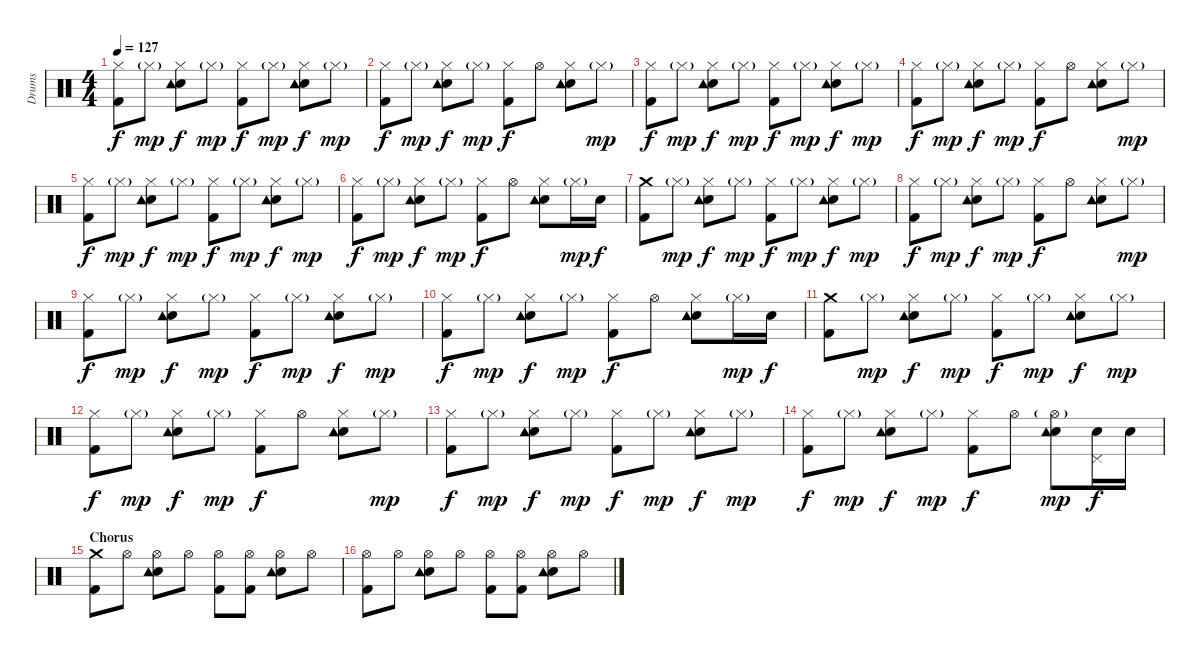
\track ("Drums" "Drums") {instrument percussion}
\staff {score}
\articulation defaults
\ts (4 4)
\tempo 127
\clef neutral
\ks c
("Hi-Hat (closed)" "Kick (hit) 2").8{dy f} "Hi-Hat (closed)"{g}.8{dy mp} ("Hi-Hat (closed)" "Snare (hit) 2" "Tambourine (hit)").8{dy f} "Hi-Hat (closed)"{g}.8{dy mp} ("Hi-Hat (closed)" "Kick (hit) 2").8{dy f} "Hi-Hat (closed)"{g}.8{dy mp} ("Hi-Hat (closed)" "Snare (hit) 2" "Tambourine (hit)").8{dy f} "Hi-Hat (closed)"{g}.8{dy mp} |
("Hi-Hat (closed)" "Kick (hit) 2").8{dy f} "Hi-Hat (closed)"{g}.8{dy mp} ("Hi-Hat (closed)" "Snare (hit) 2" "Tambourine (hit)").8{dy f} "Hi-Hat (closed)"{g}.8{dy mp} ("Hi-Hat (closed)" "Kick (hit) 2").8{dy f} "Hi-Hat (open)".8 ("Hi-Hat (closed)" "Snare (hit) 2" "Tambourine (hit)").8 "Hi-Hat (closed)"{g}.8{dy mp} |
("Hi-Hat (closed)" "Kick (hit) 2").8{dy f} "Hi-Hat (closed)"{g}.8{dy mp} ("Hi-Hat (closed)" "Snare (hit) 2" "Tambourine (hit)").8{dy f} "Hi-Hat (closed)"{g}.8{dy mp} ("Hi-Hat (closed)" "Kick (hit) 2").8{dy f} "Hi-Hat (closed)"{g}.8{dy mp} ("Hi-Hat (closed)" "Snare (hit) 2" "Tambourine (hit)").8{dy f} "Hi-Hat (closed)"{g}.8{dy mp} |
("Hi-Hat (closed)" "Kick (hit) 2").8{dy f} "Hi-Hat (closed)"{g}.8{dy mp} ("Hi-Hat (closed)" "Snare (hit) 2" "Tambourine (hit)").8{dy f} "Hi-Hat (closed)"{g}.8{dy mp} ("Hi-Hat (closed)" "Kick (hit) 2").8{dy f} "Hi-Hat (open)".8 ("Hi-Hat (closed)" "Snare (hit) 2" "Tambourine (hit)").8 "Hi-Hat (closed)"{g}.8{dy mp} |
("Hi-Hat (closed)" "Kick (hit) 2").8{dy f} "Hi-Hat (closed)"{g}.8{dy mp} ("Hi-Hat (closed)" "Snare (hit) 2" "Tambourine (hit)").8{dy f} "Hi-Hat (closed)"{g}.8{dy mp} ("Hi-Hat (closed)" "Kick (hit) 2").8{dy f} "Hi-Hat (closed)"{g}.8{dy mp} ("Hi-Hat (closed)" "Snare (hit) 2" "Tambourine (hit)").8{dy f} "Hi-Hat (closed)"{g}.8{dy mp} |
("Hi-Hat (closed)" "Kick (hit) 2").8{dy f} "Hi-Hat (closed)"{g}.8{dy mp} ("Hi-Hat (closed)" "Snare (hit) 2" "Tambourine (hit)").8{dy f} "Hi-Hat (closed)"{g}.8{dy mp} ("Hi-Hat (closed)" "Kick (hit) 2").8{dy f} "Hi-Hat (open)".8 ("Hi-Hat (closed)" "Snare (hit) 2" "Tambourine (hit)").8 "Hi-Hat (closed)"{g}.16{dy mp} "Snare (hit) 2".16{dy f} |
("Crash medium (hit)" "Kick (hit) 2").8 "Hi-Hat (closed)"{g}.8{dy mp} ("Hi-Hat (closed)" "Snare (hit) 2" "Tambourine (hit)").8{dy f} "Hi-Hat (closed)"{g}.8{dy mp} ("Hi-Hat (closed)" "Kick (hit) 2").8{dy f} "Hi-Hat (closed)"{g}.8{dy mp} ("Hi-Hat (closed)" "Snare (hit) 2" "Tambourine (hit)").8{dy f} "Hi-Hat (closed)"{g}.8{dy mp} |
("Hi-Hat (closed)" "Kick (hit) 2").8{dy f} "Hi-Hat (closed)"{g}.8{dy mp} ("Hi-Hat (closed)" "Snare (hit) 2" "Tambourine (hit)").8{dy f} "Hi-Hat (closed)"{g}.8{dy mp} ("Hi-Hat (closed)" "Kick (hit) 2").8{dy f} "Hi-Hat (open)".8 ("Hi-Hat (closed)" "Snare (hit) 2" "Tambourine (hit)").8 "Hi-Hat (closed)"{g}.8{dy mp} |
("Hi-Hat (closed)" "Kick (hit) 2").8{dy f} "Hi-Hat (closed)"{g}.8{dy mp} ("Hi-Hat (closed)" "Snare (hit) 2" "Tambourine (hit)").8{dy f} "Hi-Hat (closed)"{g}.8{dy mp} ("Hi-Hat (closed)" "Kick (hit) 2").8{dy f} "Hi-Hat (closed)"{g}.8{dy mp} ("Hi-Hat (closed)" "Snare (hit) 2" "Tambourine (hit)").8{dy f} "Hi-Hat (closed)"{g}.8{dy mp} |
("Hi-Hat (closed)" "Kick (hit) 2").8{dy f} "Hi-Hat (closed)"{g}.8{dy mp} ("Hi-Hat (closed)" "Snare (hit) 2" "Tambourine (hit)").8{dy f} "Hi-Hat (closed)"{g}.8{dy mp} ("Hi-Hat (closed)" "Kick (hit) 2").8{dy f} "Hi-Hat (open)".8 ("Hi-Hat (closed)" "Snare (hit) 2" "Tambourine (hit)").8 "Hi-Hat (closed)"{g}.16{dy mp} "Snare (hit) 2".16{dy f} |
("Crash medium (hit)" "Kick (hit) 2").8 "Hi-Hat (closed)"{g}.8{dy mp} ("Hi-Hat (closed)" "Snare (hit) 2" "Tambourine (hit)").8{dy f} "Hi-Hat (closed)"{g}.8{dy mp} ("Hi-Hat (closed)" "Kick (hit) 2").8{dy f} "Hi-Hat (closed)"{g}.8{dy mp} ("Hi-Hat (closed)" "Snare (hit) 2" "Tambourine (hit)").8{dy f} "Hi-Hat (closed)"{g}.8{dy mp} |
("Hi-Hat (closed)" "Kick (hit) 2").8{dy f} "Hi-Hat (closed)"{g}.8{dy mp} ("Hi-Hat (closed)" "Snare (hit) 2" "Tambourine (hit)").8{dy f} "Hi-Hat (closed)"{g}.8{dy mp} ("Hi-Hat (closed)" "Kick (hit) 2").8{dy f} "Hi-Hat (open)".8 ("Hi-Hat (closed)" "Snare (hit) 2" "Tambourine (hit)").8 "Hi-Hat (closed)"{g}.8{dy mp} |
("Hi-Hat (closed)" "Kick (hit) 2").8{dy f} "Hi-Hat (closed)"{g}.8{dy mp} ("Hi-Hat (closed)" "Snare (hit) 2" "Tambourine (hit)").8{dy f} "Hi-Hat (closed)"{g}.8{dy mp} ("Hi-Hat (closed)" "Kick (hit) 2").8{dy f} "Hi-Hat (closed)"{g}.8{dy mp} ("Hi-Hat (closed)" "Snare (hit) 2" "Tambourine (hit)").8{dy f} "Hi-Hat (closed)"{g}.8{dy mp} |
("Hi-Hat (closed)" "Kick (hit) 2").8{dy f} "Hi-Hat (closed)"{g}.8{dy mp} ("Hi-Hat (closed)" "Snare (hit) 2" "Tambourine (hit)").8{dy f} "Hi-Hat (closed)"{g}.8{dy mp} ("Hi-Hat (closed)" "Kick (hit) 2").8{dy f} "Hi-Hat (open)".8 ("Hi-Hat (open)"{g} "Snare (hit) 2" "Tambourine (hit)").8{dy mp} ("Pedal Hi-Hat (hit)" "Snare (hit) 2").16{dy f} "Snare (hit) 2".16 |
\section ("" "Chorus")
("Crash medium (hit)" "Kick (hit) 2").8 "Hi-Hat (open)".8 ("Hi-Hat (open)" "Snare (hit) 2" "Tambourine (hit)").8 "Hi-Hat (open)".8 ("Hi-Hat (open)" "Kick (hit) 2").8 ("Hi-Hat (open)" "Kick (hit) 2").8 ("Hi-Hat (open)" "Snare (hit) 2" "Tambourine (hit)").8 "Hi-Hat (open)".8 |
("Hi-Hat (open)" "Kick (hit) 2").8 "Hi-Hat (open)".8 ("Hi-Hat (open)" "Snare (hit) 2" "Tambourine (hit)").8 "Hi-Hat (open)".8 ("Hi-Hat (open)" "Kick (hit) 2").8 ("Hi-Hat (open)" "Kick (hit) 2").8 ("Hi-Hat (open)" "Snare (hit) 2" "Tambourine (hit)").8 "Hi-Hat (open)".8
